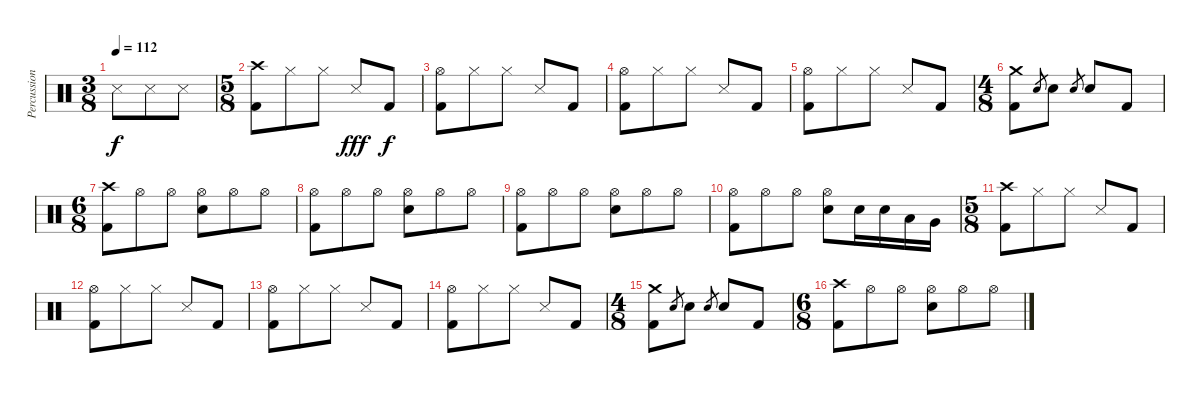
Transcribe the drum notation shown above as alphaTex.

\track ("Percussion" "Percussion") {instrument percussion}
\staff {score}
\articulation defaults
\ts (3 8)
\tempo 112
\clef neutral
\ks c "Snare (side stick) 3".8{dy f} "Snare (side stick) 3".8 "Snare (side stick) 3".8
|
\ts (5 8)
("Crash high (hit)" "Kick (hit) 2").8 "Hi-Hat (closed)".8 "Hi-Hat (closed)".8 "Snare (side stick) 3".8{dy fff} "Kick (hit) 2".8{dy f} |
("Hi-Hat (open)" "Kick (hit) 2").8 "Hi-Hat (closed)".8 "Hi-Hat (closed)".8 "Snare (side stick) 3".8 "Kick (hit) 2".8 |
("Hi-Hat (open)" "Kick (hit) 2").8 "Hi-Hat (closed)".8 "Hi-Hat (closed)".8 "Snare (side stick) 3".8 "Kick (hit) 2".8 |
("Hi-Hat (open)" "Kick (hit) 2").8 "Hi-Hat (closed)".8 "Hi-Hat (closed)".8 "Snare (side stick) 3".8 "Kick (hit) 2".8 |
\ts (4 8)
("Crash medium (hit)" "Kick (hit) 2").8 "Electric Snare (hit)".8{gr} "Electric Snare (hit)".8 "Electric Snare (hit)".8{gr} "Electric Snare (hit)".8 "Kick (hit) 2".8 |
\ts (6 8)
("Crash high (hit)" "Kick (hit) 2").8 "Hi-Hat (open)".8 "Hi-Hat (open)".8 ("Hi-Hat (open)" "Electric Snare (hit)").8 "Hi-Hat (open)".8 "Hi-Hat (open)".8 |
("Hi-Hat (open)" "Kick (hit) 2").8 "Hi-Hat (open)".8 "Hi-Hat (open)".8 ("Hi-Hat (open)" "Electric Snare (hit)").8 "Hi-Hat (open)".8 "Hi-Hat (open)".8 |
("Hi-Hat (open)" "Kick (hit) 2").8 "Hi-Hat (open)".8 "Hi-Hat (open)".8 ("Hi-Hat (open)" "Electric Snare (hit)").8 "Hi-Hat (open)".8 "Hi-Hat (open)".8 |
("Hi-Hat (open)" "Kick (hit) 2").8 "Hi-Hat (open)".8 "Hi-Hat (open)".8 ("Hi-Hat (open)" "Electric Snare (hit)").8 "Electric Snare (hit)".16 "Electric Snare (hit)".16 "Low Tom (hit)".16 "Very Low Tom (hit)".16 |
\ts (5 8)
("Crash high (hit)" "Kick (hit) 2").8 "Hi-Hat (closed)".8 "Hi-Hat (closed)".8 "Snare (side stick) 3".8 "Kick (hit) 2".8 |
("Hi-Hat (open)" "Kick (hit) 2").8 "Hi-Hat (closed)".8 "Hi-Hat (closed)".8 "Snare (side stick) 3".8 "Kick (hit) 2".8 |
("Hi-Hat (open)" "Kick (hit) 2").8 "Hi-Hat (closed)".8 "Hi-Hat (closed)".8 "Snare (side stick) 3".8 "Kick (hit) 2".8 |
("Hi-Hat (open)" "Kick (hit) 2").8 "Hi-Hat (closed)".8 "Hi-Hat (closed)".8 "Snare (side stick) 3".8 "Kick (hit) 2".8 |
\ts (4 8)
("Crash medium (hit)" "Kick (hit) 2").8 "Electric Snare (hit)".8{gr} "Electric Snare (hit)".8 "Electric Snare (hit)".8{gr} "Electric Snare (hit)".8 "Kick (hit) 2".8 |
\ts (6 8)
("Crash high (hit)" "Kick (hit) 2").8 "Hi-Hat (open)".8 "Hi-Hat (open)".8 ("Hi-Hat (open)" "Electric Snare (hit)").8 "Hi-Hat (open)".8 "Hi-Hat (open)".8
